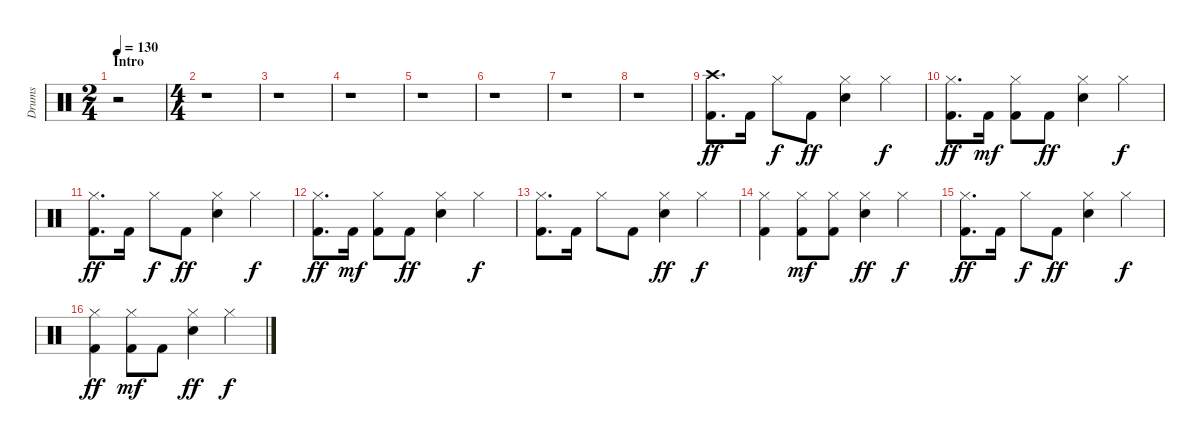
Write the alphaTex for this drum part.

\track ("Drums" "Drums") {instrument percussion}
\staff {score}
\articulation defaults
\ts (2 4)
\section ("" "Intro")
\tempo 130
\clef neutral
\ks c
r.2{dy ff} |
\ts (4 4)
r.1 |
r.1 |
r.1 |
r.1 |
r.1 |
r.1 |
r.1 |
("Crash high (hit)" "Kick (hit) 2").8{d} "Kick (hit) 2".16 "Hi-Hat (closed)".8{dy f} "Kick (hit) 2".8{dy ff} ("Hi-Hat (closed)" "Electric Snare (hit)").4 "Hi-Hat (closed)".4{dy f} |
("Hi-Hat (closed)" "Kick (hit) 2").8{d dy ff} "Kick (hit) 2".16{dy mf} ("Hi-Hat (closed)" "Kick (hit) 2").8 "Kick (hit) 2".8{dy ff} ("Hi-Hat (closed)" "Electric Snare (hit)").4 "Hi-Hat (closed)".4{dy f} |
("Hi-Hat (closed)" "Kick (hit) 2").8{d dy ff} "Kick (hit) 2".16 "Hi-Hat (closed)".8{dy f} "Kick (hit) 2".8{dy ff} ("Hi-Hat (closed)" "Electric Snare (hit)").4 "Hi-Hat (closed)".4{dy f} |
("Hi-Hat (closed)" "Kick (hit) 2").8{d dy ff} "Kick (hit) 2".16{dy mf} ("Hi-Hat (closed)" "Kick (hit) 2").8 "Kick (hit) 2".8{dy ff} ("Hi-Hat (closed)" "Electric Snare (hit)").4 "Hi-Hat (closed)".4{dy f} |
("Hi-Hat (closed)" "Kick (hit) 2").8{d} "Kick (hit) 2".16 "Hi-Hat (closed)".8 "Kick (hit) 2".8 ("Hi-Hat (closed)" "Electric Snare (hit)").4{dy ff} "Hi-Hat (closed)".4{dy f} |
("Hi-Hat (closed)" "Kick (hit) 2").4 ("Hi-Hat (closed)" "Kick (hit) 2").8{dy mf} ("Hi-Hat (closed)" "Kick (hit) 2").8 ("Hi-Hat (closed)" "Electric Snare (hit)").4{dy ff} "Hi-Hat (closed)".4{dy f} |
("Hi-Hat (closed)" "Kick (hit) 2").8{d dy ff} "Kick (hit) 2".16 "Hi-Hat (closed)".8{dy f} "Kick (hit) 2".8{dy ff} ("Hi-Hat (closed)" "Electric Snare (hit)").4 "Hi-Hat (closed)".4{dy f} |
("Hi-Hat (closed)" "Kick (hit) 2").4{dy ff} ("Hi-Hat (closed)" "Kick (hit) 2").8{dy mf} "Kick (hit) 2".8 ("Hi-Hat (closed)" "Electric Snare (hit)").4{dy ff} "Hi-Hat (closed)".4{dy f}
